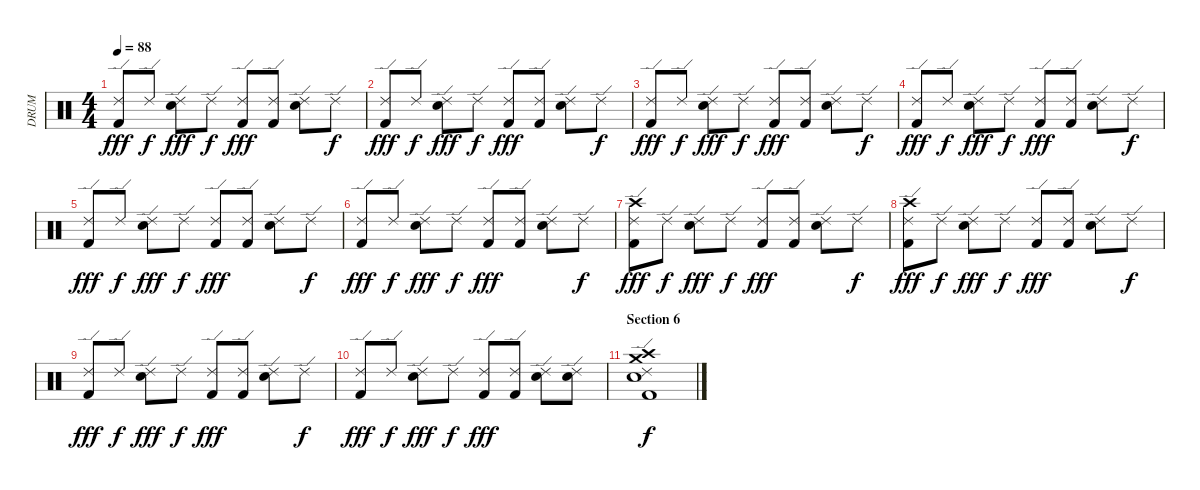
\track ("DRUM" "DRUM") {instrument percussion}
\staff {score}
\articulation defaults
\ts (4 4)
\tempo 88
\clef neutral
\ks c
("Ride (edge) 2" "Kick (hit) 2").8{dy fff} "Ride (edge) 2".8{dy f} ("Ride (edge) 2" "Snare (hit) 2").8{dy fff} "Ride (edge) 2".8{dy f} ("Ride (edge) 2" "Kick (hit) 2").8{dy fff} ("Ride (edge) 2" "Kick (hit) 2").8 ("Ride (edge) 2" "Snare (hit) 2").8 "Ride (edge) 2".8{dy f} |
("Ride (edge) 2" "Kick (hit) 2").8{dy fff} "Ride (edge) 2".8{dy f} ("Ride (edge) 2" "Snare (hit) 2").8{dy fff} "Ride (edge) 2".8{dy f} ("Ride (edge) 2" "Kick (hit) 2").8{dy fff} ("Ride (edge) 2" "Kick (hit) 2").8 ("Ride (edge) 2" "Snare (hit) 2").8 "Ride (edge) 2".8{dy f} |
("Ride (edge) 2" "Kick (hit) 2").8{dy fff} "Ride (edge) 2".8{dy f} ("Ride (edge) 2" "Snare (hit) 2").8{dy fff} "Ride (edge) 2".8{dy f} ("Ride (edge) 2" "Kick (hit) 2").8{dy fff} ("Ride (edge) 2" "Kick (hit) 2").8 ("Ride (edge) 2" "Snare (hit) 2").8 "Ride (edge) 2".8{dy f} |
("Ride (edge) 2" "Kick (hit) 2").8{dy fff} "Ride (edge) 2".8{dy f} ("Ride (edge) 2" "Snare (hit) 2").8{dy fff} "Ride (edge) 2".8{dy f} ("Ride (edge) 2" "Kick (hit) 2").8{dy fff} ("Ride (edge) 2" "Kick (hit) 2").8 ("Ride (edge) 2" "Snare (hit) 2").8 "Ride (edge) 2".8{dy f} |
("Ride (edge) 2" "Kick (hit) 2").8{dy fff} "Ride (edge) 2".8{dy f} ("Ride (edge) 2" "Snare (hit) 2").8{dy fff} "Ride (edge) 2".8{dy f} ("Ride (edge) 2" "Kick (hit) 2").8{dy fff} ("Ride (edge) 2" "Kick (hit) 2").8 ("Ride (edge) 2" "Snare (hit) 2").8 "Ride (edge) 2".8{dy f} |
("Ride (edge) 2" "Kick (hit) 2").8{dy fff} "Ride (edge) 2".8{dy f} ("Ride (edge) 2" "Snare (hit) 2").8{dy fff} "Ride (edge) 2".8{dy f} ("Ride (edge) 2" "Kick (hit) 2").8{dy fff} ("Ride (edge) 2" "Kick (hit) 2").8 ("Ride (edge) 2" "Snare (hit) 2").8 "Ride (edge) 2".8{dy f} |
("Ride (edge) 2" "Crash high (hit)" "Kick (hit) 2").8{dy fff} "Ride (edge) 2".8{dy f} ("Ride (edge) 2" "Snare (hit) 2").8{dy fff} "Ride (edge) 2".8{dy f} ("Ride (edge) 2" "Kick (hit) 2").8{dy fff} ("Ride (edge) 2" "Kick (hit) 2").8 ("Ride (edge) 2" "Snare (hit) 2").8 "Ride (edge) 2".8{dy f} |
("Ride (edge) 2" "Crash high (hit)" "Kick (hit) 2").8{dy fff} "Ride (edge) 2".8{dy f} ("Ride (edge) 2" "Snare (hit) 2").8{dy fff} "Ride (edge) 2".8{dy f} ("Ride (edge) 2" "Kick (hit) 2").8{dy fff} ("Ride (edge) 2" "Kick (hit) 2").8 ("Ride (edge) 2" "Snare (hit) 2").8 "Ride (edge) 2".8{dy f} |
("Ride (edge) 2" "Kick (hit) 2").8{dy fff} "Ride (edge) 2".8{dy f} ("Ride (edge) 2" "Snare (hit) 2").8{dy fff} "Ride (edge) 2".8{dy f} ("Ride (edge) 2" "Kick (hit) 2").8{dy fff} ("Ride (edge) 2" "Kick (hit) 2").8 ("Ride (edge) 2" "Snare (hit) 2").8 "Ride (edge) 2".8{dy f} |
("Ride (edge) 2" "Kick (hit) 2").8{dy fff} "Ride (edge) 2".8{dy f} ("Ride (edge) 2" "Snare (hit) 2").8{dy fff} "Ride (edge) 2".8{dy f} ("Ride (edge) 2" "Kick (hit) 2").8{dy fff} ("Ride (edge) 2" "Kick (hit) 2").8 ("Ride (edge) 2" "Snare (hit) 2").8 ("Ride (edge) 2" "Snare (hit) 2").8 |
\section ("" "Section 6")
("Crash high (hit)" "Crash medium (hit)" "Ride (edge) 2" "Snare (hit) 2" "Kick (hit) 2").1{dy f}
